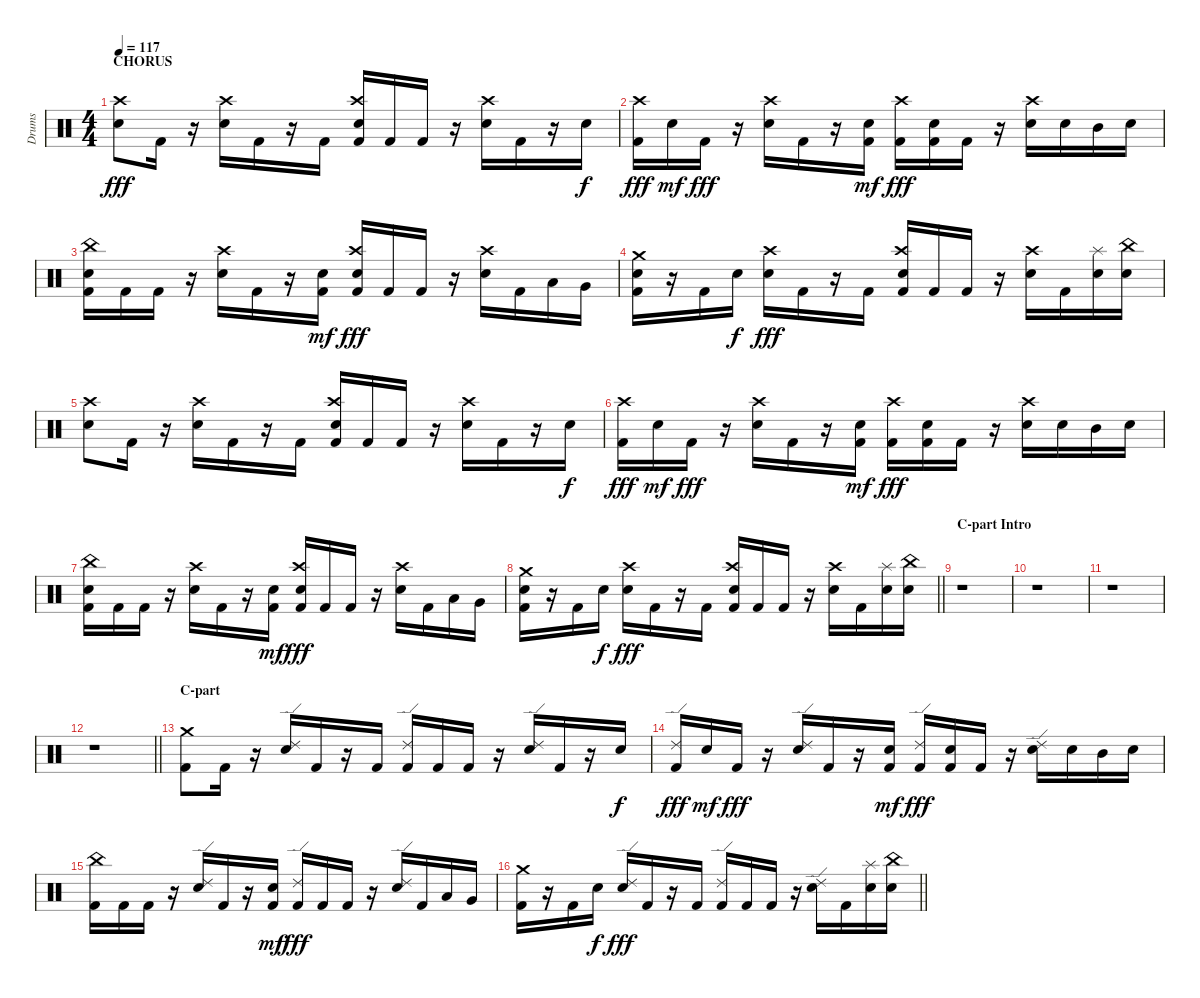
\track ("Drums" "Drums") {instrument percussion}
\staff {score}
\articulation defaults
\ts (4 4)
\section ("" "CHORUS")
\tempo 117
\clef neutral
\ks c
("Snare (hit) 2" "Crash high (hit)").8{dy fff} "Kick (hit) 2".16 r.16 ("Snare (hit) 2" "Crash high (hit)").16 "Kick (hit) 2".16 r.16 "Kick (hit) 2".16 ("Kick (hit) 2" "Snare (hit) 2" "Crash high (hit)").16 "Kick (hit) 2".16 "Kick (hit) 2".16 r.16 ("Snare (hit) 2" "Crash high (hit)").16 "Kick (hit) 2".16 r.16 "Snare (hit) 2".16{dy f} |
("Kick (hit) 2" "Crash high (hit)").16{dy fff} "Snare (hit) 2".16{dy mf} "Kick (hit) 2".16{dy fff} r.16 ("Snare (hit) 2" "Crash high (hit)").16 "Kick (hit) 2".16 r.16 ("Kick (hit) 2" "Snare (hit) 2").16{dy mf} ("Kick (hit) 2" "Crash high (hit)").16{dy fff} ("Kick (hit) 2" "Snare (hit) 2").16 "Kick (hit) 2".16 r.16 ("Snare (hit) 2" "Crash high (hit)").16 "Snare (hit) 2".16 "Mid Tom (hit)".16 "Snare (hit) 2".16 |
("Kick (hit) 2" "Snare (hit) 2" "China (hit)").16 "Kick (hit) 2".16 "Kick (hit) 2".16 r.16 ("Snare (hit) 2" "Crash high (hit)").16 "Kick (hit) 2".16 r.16 ("Kick (hit) 2" "Snare (hit) 2").16{dy mf} ("Kick (hit) 2" "Snare (hit) 2" "Crash high (hit)").16{dy fff} "Kick (hit) 2".16 "Kick (hit) 2".16 r.16 ("Snare (hit) 2" "Crash high (hit)").16 "Kick (hit) 2".16 "Low Tom (hit)".16 "Very Low Tom (hit)".16 |
("Kick (hit) 2" "Snare (hit) 2" "Crash medium (hit)").16 r.16 "Kick (hit) 2".16 "Snare (hit) 2".16{dy f} ("Snare (hit) 2" "Crash high (hit)").16{dy fff} "Kick (hit) 2".16 r.16 "Kick (hit) 2".16 ("Kick (hit) 2" "Snare (hit) 2" "Crash high (hit)").16 "Kick (hit) 2".16 "Kick (hit) 2".16 r.16 ("Snare (hit) 2" "Crash high (hit)").16 "Kick (hit) 2".16 ("Snare (hit) 2" "Splash (hit)").16 ("Snare (hit) 2" "China (hit)").16 |
("Snare (hit) 2" "Crash high (hit)").8 "Kick (hit) 2".16 r.16 ("Snare (hit) 2" "Crash high (hit)").16 "Kick (hit) 2".16 r.16 "Kick (hit) 2".16 ("Kick (hit) 2" "Snare (hit) 2" "Crash high (hit)").16 "Kick (hit) 2".16 "Kick (hit) 2".16 r.16 ("Snare (hit) 2" "Crash high (hit)").16 "Kick (hit) 2".16 r.16 "Snare (hit) 2".16{dy f} |
("Kick (hit) 2" "Crash high (hit)").16{dy fff} "Snare (hit) 2".16{dy mf} "Kick (hit) 2".16{dy fff} r.16 ("Snare (hit) 2" "Crash high (hit)").16 "Kick (hit) 2".16 r.16 ("Kick (hit) 2" "Snare (hit) 2").16{dy mf} ("Kick (hit) 2" "Crash high (hit)").16{dy fff} ("Kick (hit) 2" "Snare (hit) 2").16 "Kick (hit) 2".16 r.16 ("Snare (hit) 2" "Crash high (hit)").16 "Snare (hit) 2".16 "Mid Tom (hit)".16 "Snare (hit) 2".16 |
("Kick (hit) 2" "Snare (hit) 2" "China (hit)").16 "Kick (hit) 2".16 "Kick (hit) 2".16 r.16 ("Snare (hit) 2" "Crash high (hit)").16 "Kick (hit) 2".16 r.16 ("Kick (hit) 2" "Snare (hit) 2").16{dy mf} ("Kick (hit) 2" "Snare (hit) 2" "Crash high (hit)").16{dy fff} "Kick (hit) 2".16 "Kick (hit) 2".16 r.16 ("Snare (hit) 2" "Crash high (hit)").16 "Kick (hit) 2".16 "Low Tom (hit)".16 "Very Low Tom (hit)".16 |
\barLineRight lightlight
("Kick (hit) 2" "Snare (hit) 2" "Crash medium (hit)").16 r.16 "Kick (hit) 2".16 "Snare (hit) 2".16{dy f} ("Snare (hit) 2" "Crash high (hit)").16{dy fff} "Kick (hit) 2".16 r.16 "Kick (hit) 2".16 ("Kick (hit) 2" "Snare (hit) 2" "Crash high (hit)").16 "Kick (hit) 2".16 "Kick (hit) 2".16 r.16 ("Snare (hit) 2" "Crash high (hit)").16 "Kick (hit) 2".16 ("Snare (hit) 2" "Splash (hit)").16 ("Snare (hit) 2" "China (hit)").16 |
\section ("" "C-part Intro")
r.1 |
r.1 |
r.1 |
\barLineRight lightlight
r.1 |
\section ("" "C-part")
("Kick (hit) 2" "Crash medium (hit)").8 "Kick (hit) 2".16 r.16 ("Snare (hit) 2" "Ride (edge) 2").16 "Kick (hit) 2".16 r.16 "Kick (hit) 2".16 ("Kick (hit) 2" "Ride (edge) 2").16 "Kick (hit) 2".16 "Kick (hit) 2".16 r.16 ("Snare (hit) 2" "Ride (edge) 2").16 "Kick (hit) 2".16 r.16 "Snare (hit) 2".16{dy f} |
("Kick (hit) 2" "Ride (edge) 2").16{dy fff} "Snare (hit) 2".16{dy mf} "Kick (hit) 2".16{dy fff} r.16 ("Snare (hit) 2" "Ride (edge) 2").16 "Kick (hit) 2".16 r.16 ("Kick (hit) 2" "Snare (hit) 2").16{dy mf} ("Kick (hit) 2" "Ride (edge) 2").16{dy fff} ("Kick (hit) 2" "Snare (hit) 2").16 "Kick (hit) 2".16 r.16 ("Snare (hit) 2" "Ride (edge) 2").16 "Snare (hit) 2".16 "Mid Tom (hit)".16 "Snare (hit) 2".16 |
("Kick (hit) 2" "China (hit)").16 "Kick (hit) 2".16 "Kick (hit) 2".16 r.16 ("Snare (hit) 2" "Ride (edge) 2").16 "Kick (hit) 2".16 r.16 ("Kick (hit) 2" "Snare (hit) 2").16{dy mf} ("Kick (hit) 2" "Ride (edge) 2").16{dy fff} "Kick (hit) 2".16 "Kick (hit) 2".16 r.16 ("Snare (hit) 2" "Ride (edge) 2").16 "Kick (hit) 2".16 "Low Tom (hit)".16 "Very Low Tom (hit)".16 |
\barLineRight lightlight
("Kick (hit) 2" "Crash medium (hit)").16 r.16 "Kick (hit) 2".16 "Snare (hit) 2".16{dy f} ("Snare (hit) 2" "Ride (edge) 2").16{dy fff} "Kick (hit) 2".16 r.16 "Kick (hit) 2".16 ("Kick (hit) 2" "Ride (edge) 2").16 "Kick (hit) 2".16 "Kick (hit) 2".16 r.16 ("Snare (hit) 2" "Ride (edge) 2").16 "Kick (hit) 2".16 ("Snare (hit) 2" "Splash (hit)").16 ("Snare (hit) 2" "China (hit)").16
